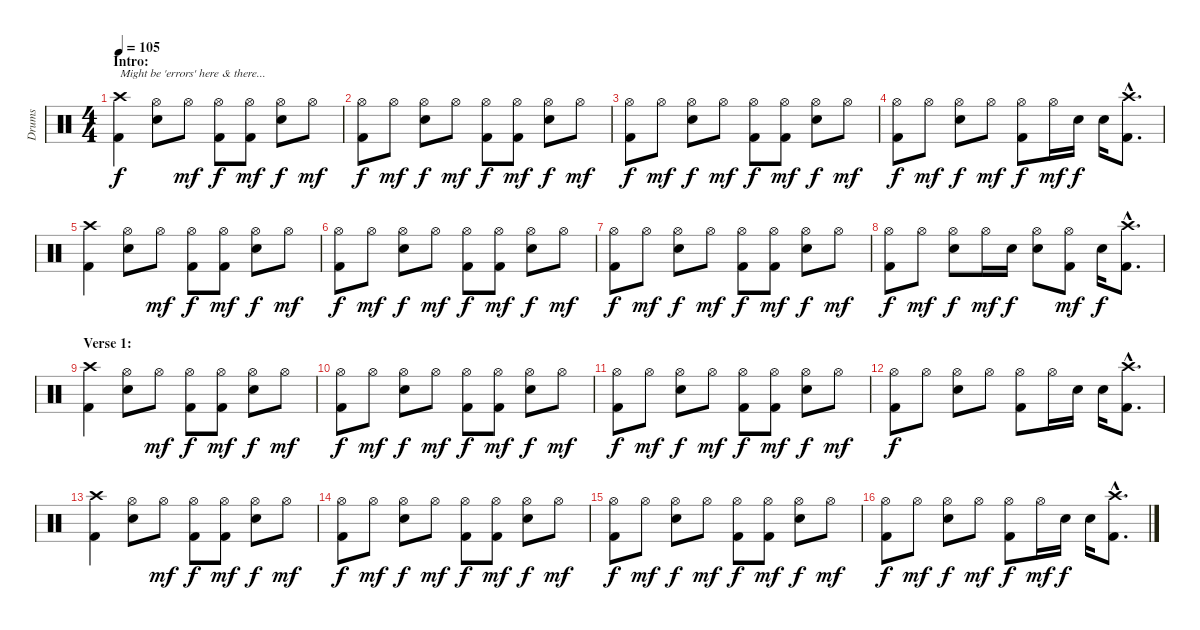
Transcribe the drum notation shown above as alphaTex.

\track ("Drums" "Drums") {instrument percussion}
\staff {score}
\articulation defaults
\ts (4 4)
\section ("" "Intro:")
\tempo 105
\clef neutral
\ks c
("Crash high (hit)" "Kick (hit) 2").4{txt "Might be 'errors' here & there..." dy f volume 10} ("Hi-Hat (open)" "Electric Snare (hit)").8 "Hi-Hat (open)".8{dy mf} ("Hi-Hat (open)" "Kick (hit) 2").8{dy f} ("Hi-Hat (open)" "Kick (hit) 2").8{dy mf} ("Hi-Hat (open)" "Electric Snare (hit)").8{dy f} "Hi-Hat (open)".8{dy mf} |
("Hi-Hat (open)" "Kick (hit) 2").8{dy f} "Hi-Hat (open)".8{dy mf} ("Hi-Hat (open)" "Electric Snare (hit)").8{dy f} "Hi-Hat (open)".8{dy mf} ("Hi-Hat (open)" "Kick (hit) 2").8{dy f} ("Hi-Hat (open)" "Kick (hit) 2").8{dy mf} ("Hi-Hat (open)" "Electric Snare (hit)").8{dy f} "Hi-Hat (open)".8{dy mf} |
("Hi-Hat (open)" "Kick (hit) 2").8{dy f} "Hi-Hat (open)".8{dy mf} ("Hi-Hat (open)" "Electric Snare (hit)").8{dy f} "Hi-Hat (open)".8{dy mf} ("Hi-Hat (open)" "Kick (hit) 2").8{dy f} ("Hi-Hat (open)" "Kick (hit) 2").8{dy mf} ("Hi-Hat (open)" "Electric Snare (hit)").8{dy f} "Hi-Hat (open)".8{dy mf} |
("Hi-Hat (open)" "Kick (hit) 2").8{dy f} "Hi-Hat (open)".8{dy mf} ("Hi-Hat (open)" "Electric Snare (hit)").8{dy f} "Hi-Hat (open)".8{dy mf} ("Hi-Hat (open)" "Kick (hit) 2").8{dy f} "Hi-Hat (open)".16{dy mf} "Electric Snare (hit)".16{dy f} "Electric Snare (hit)".16 ("Crash high (hit)"{hac} "Kick (hit) 2"{hac}).8{d} |
("Crash high (hit)" "Kick (hit) 2").4 ("Hi-Hat (open)" "Electric Snare (hit)").8 "Hi-Hat (open)".8{dy mf} ("Hi-Hat (open)" "Kick (hit) 2").8{dy f} ("Hi-Hat (open)" "Kick (hit) 2").8{dy mf} ("Hi-Hat (open)" "Electric Snare (hit)").8{dy f} "Hi-Hat (open)".8{dy mf} |
("Hi-Hat (open)" "Kick (hit) 2").8{dy f} "Hi-Hat (open)".8{dy mf} ("Hi-Hat (open)" "Electric Snare (hit)").8{dy f} "Hi-Hat (open)".8{dy mf} ("Hi-Hat (open)" "Kick (hit) 2").8{dy f} ("Hi-Hat (open)" "Kick (hit) 2").8{dy mf} ("Hi-Hat (open)" "Electric Snare (hit)").8{dy f} "Hi-Hat (open)".8{dy mf} |
("Hi-Hat (open)" "Kick (hit) 2").8{dy f} "Hi-Hat (open)".8{dy mf} ("Hi-Hat (open)" "Electric Snare (hit)").8{dy f} "Hi-Hat (open)".8{dy mf} ("Hi-Hat (open)" "Kick (hit) 2").8{dy f} ("Hi-Hat (open)" "Kick (hit) 2").8{dy mf} ("Hi-Hat (open)" "Electric Snare (hit)").8{dy f} "Hi-Hat (open)".8{dy mf} |
("Hi-Hat (open)" "Kick (hit) 2").8{dy f} "Hi-Hat (open)".8{dy mf} ("Hi-Hat (open)" "Electric Snare (hit)").8{dy f} "Hi-Hat (open)".16{dy mf} "Electric Snare (hit)".16{dy f} ("Hi-Hat (open)" "Electric Snare (hit)").8 ("Hi-Hat (open)" "Kick (hit) 2").8{dy mf} "Electric Snare (hit)".16{dy f} ("Crash high (hit)"{hac} "Kick (hit) 2"{hac}).8{d} |
\section ("" "Verse 1:")
("Crash high (hit)" "Kick (hit) 2").4 ("Hi-Hat (open)" "Electric Snare (hit)").8 "Hi-Hat (open)".8{dy mf} ("Hi-Hat (open)" "Kick (hit) 2").8{dy f} ("Hi-Hat (open)" "Kick (hit) 2").8{dy mf} ("Hi-Hat (open)" "Electric Snare (hit)").8{dy f} "Hi-Hat (open)".8{dy mf} |
("Hi-Hat (open)" "Kick (hit) 2").8{dy f} "Hi-Hat (open)".8{dy mf} ("Hi-Hat (open)" "Electric Snare (hit)").8{dy f} "Hi-Hat (open)".8{dy mf} ("Hi-Hat (open)" "Kick (hit) 2").8{dy f} ("Hi-Hat (open)" "Kick (hit) 2").8{dy mf} ("Hi-Hat (open)" "Electric Snare (hit)").8{dy f} "Hi-Hat (open)".8{dy mf} |
("Hi-Hat (open)" "Kick (hit) 2").8{dy f} "Hi-Hat (open)".8{dy mf} ("Hi-Hat (open)" "Electric Snare (hit)").8{dy f} "Hi-Hat (open)".8{dy mf} ("Hi-Hat (open)" "Kick (hit) 2").8{dy f} ("Hi-Hat (open)" "Kick (hit) 2").8{dy mf} ("Hi-Hat (open)" "Electric Snare (hit)").8{dy f} "Hi-Hat (open)".8{dy mf} |
("Hi-Hat (open)" "Kick (hit) 2").8{dy f} "Hi-Hat (open)".8 ("Hi-Hat (open)" "Electric Snare (hit)").8 "Hi-Hat (open)".8 ("Hi-Hat (open)" "Kick (hit) 2").8 "Hi-Hat (open)".16 "Electric Snare (hit)".16 "Electric Snare (hit)".16 ("Crash high (hit)"{hac} "Kick (hit) 2"{hac}).8{d} |
("Crash high (hit)" "Kick (hit) 2").4 ("Hi-Hat (open)" "Electric Snare (hit)").8 "Hi-Hat (open)".8{dy mf} ("Hi-Hat (open)" "Kick (hit) 2").8{dy f} ("Hi-Hat (open)" "Kick (hit) 2").8{dy mf} ("Hi-Hat (open)" "Electric Snare (hit)").8{dy f} "Hi-Hat (open)".8{dy mf} |
("Hi-Hat (open)" "Kick (hit) 2").8{dy f} "Hi-Hat (open)".8{dy mf} ("Hi-Hat (open)" "Electric Snare (hit)").8{dy f} "Hi-Hat (open)".8{dy mf} ("Hi-Hat (open)" "Kick (hit) 2").8{dy f} ("Hi-Hat (open)" "Kick (hit) 2").8{dy mf} ("Hi-Hat (open)" "Electric Snare (hit)").8{dy f} "Hi-Hat (open)".8{dy mf} |
("Hi-Hat (open)" "Kick (hit) 2").8{dy f} "Hi-Hat (open)".8{dy mf} ("Hi-Hat (open)" "Electric Snare (hit)").8{dy f} "Hi-Hat (open)".8{dy mf} ("Hi-Hat (open)" "Kick (hit) 2").8{dy f} ("Hi-Hat (open)" "Kick (hit) 2").8{dy mf} ("Hi-Hat (open)" "Electric Snare (hit)").8{dy f} "Hi-Hat (open)".8{dy mf} |
("Hi-Hat (open)" "Kick (hit) 2").8{dy f} "Hi-Hat (open)".8{dy mf} ("Hi-Hat (open)" "Electric Snare (hit)").8{dy f} "Hi-Hat (open)".8{dy mf} ("Hi-Hat (open)" "Kick (hit) 2").8{dy f} "Hi-Hat (open)".16{dy mf} "Electric Snare (hit)".16{dy f} "Electric Snare (hit)".16 ("Crash high (hit)"{hac} "Kick (hit) 2"{hac}).8{d}
